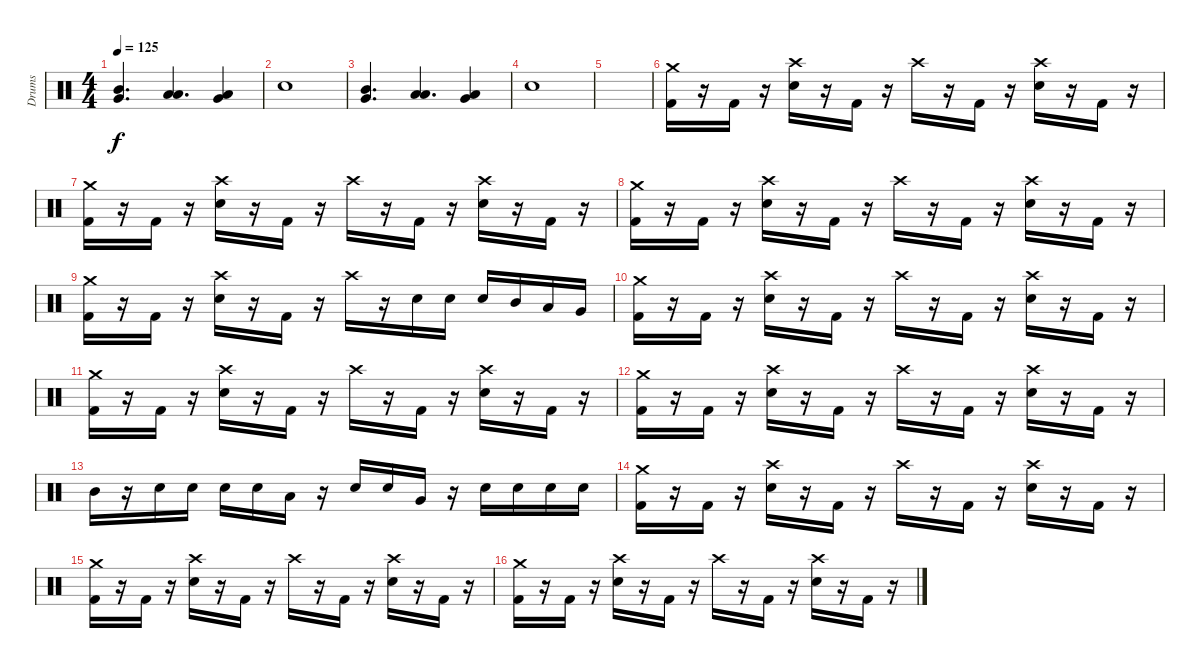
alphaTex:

\track ("Drums" "Drums") {instrument percussion}
\staff {score}
\articulation defaults
\ts (4 4)
\tempo 125
\clef neutral
\ks c
("Mid Tom (hit)" "Very Low Tom (hit)").4{d dy f} ("Low Tom (hit)" "Low Floor Tom (hit)").4{d} ("Very Low Tom (hit)" "Low Floor Tom (hit)").4 |
"Snare (hit) 2".1 |
("Mid Tom (hit)" "Very Low Tom (hit)").4{d} ("Low Tom (hit)" "Low Floor Tom (hit)").4{d} ("Very Low Tom (hit)" "Low Floor Tom (hit)").4 |
"Snare (hit) 2".1 |
|
("Crash medium (hit)" "Kick (hit) 2").16{volume 13} r.16 "Kick (hit) 2".16 r.16 ("Crash high (hit)" "Snare (hit) 2").16 r.16 "Kick (hit) 2".16 r.16 "Crash high (hit)".16 r.16 "Kick (hit) 2".16 r.16 ("Crash high (hit)" "Snare (hit) 2").16 r.16 "Kick (hit) 2".16 r.16 |
("Crash medium (hit)" "Kick (hit) 2").16 r.16 "Kick (hit) 2".16 r.16 ("Crash high (hit)" "Snare (hit) 2").16 r.16 "Kick (hit) 2".16 r.16 "Crash high (hit)".16 r.16 "Kick (hit) 2".16 r.16 ("Crash high (hit)" "Snare (hit) 2").16 r.16 "Kick (hit) 2".16 r.16 |
("Crash medium (hit)" "Kick (hit) 2").16 r.16 "Kick (hit) 2".16 r.16 ("Crash high (hit)" "Snare (hit) 2").16 r.16 "Kick (hit) 2".16 r.16 "Crash high (hit)".16 r.16 "Kick (hit) 2".16 r.16 ("Crash high (hit)" "Snare (hit) 2").16 r.16 "Kick (hit) 2".16 r.16 |
("Crash medium (hit)" "Kick (hit) 2").16 r.16 "Kick (hit) 2".16 r.16 ("Crash high (hit)" "Snare (hit) 2").16 r.16 "Kick (hit) 2".16 r.16 "Crash high (hit)".16 r.16 "Snare (hit) 2".16 "Snare (hit) 2".16 "Snare (hit) 2".16 "Mid Tom (hit)".16 "Low Tom (hit)".16 "Very Low Tom (hit)".16 |
("Crash medium (hit)" "Kick (hit) 2").16 r.16 "Kick (hit) 2".16 r.16 ("Crash high (hit)" "Snare (hit) 2").16 r.16 "Kick (hit) 2".16 r.16 "Crash high (hit)".16 r.16 "Kick (hit) 2".16 r.16 ("Crash high (hit)" "Snare (hit) 2").16 r.16 "Kick (hit) 2".16 r.16 |
("Crash medium (hit)" "Kick (hit) 2").16 r.16 "Kick (hit) 2".16 r.16 ("Crash high (hit)" "Snare (hit) 2").16 r.16 "Kick (hit) 2".16 r.16 "Crash high (hit)".16 r.16 "Kick (hit) 2".16 r.16 ("Crash high (hit)" "Snare (hit) 2").16 r.16 "Kick (hit) 2".16 r.16 |
("Crash medium (hit)" "Kick (hit) 2").16 r.16 "Kick (hit) 2".16 r.16 ("Crash high (hit)" "Snare (hit) 2").16 r.16 "Kick (hit) 2".16 r.16 "Crash high (hit)".16 r.16 "Kick (hit) 2".16 r.16 ("Crash high (hit)" "Snare (hit) 2").16 r.16 "Kick (hit) 2".16 r.16 |
"Mid Tom (hit)".16 r.16 "Snare (hit) 2".16 "Snare (hit) 2".16 "Snare (hit) 2".16 "Snare (hit) 2".16 "Low Tom (hit)".16 r.16 "Snare (hit) 2".16 "Snare (hit) 2".16 "Very Low Tom (hit)".16 r.16 "Snare (hit) 2".16 "Snare (hit) 2".16 "Snare (hit) 2".16 "Snare (hit) 2".16 |
("Crash medium (hit)" "Kick (hit) 2").16 r.16 "Kick (hit) 2".16 r.16 ("Crash high (hit)" "Snare (hit) 2").16 r.16 "Kick (hit) 2".16 r.16 "Crash high (hit)".16 r.16 "Kick (hit) 2".16 r.16 ("Crash high (hit)" "Snare (hit) 2").16 r.16 "Kick (hit) 2".16 r.16 |
("Crash medium (hit)" "Kick (hit) 2").16 r.16 "Kick (hit) 2".16 r.16 ("Crash high (hit)" "Snare (hit) 2").16 r.16 "Kick (hit) 2".16 r.16 "Crash high (hit)".16 r.16 "Kick (hit) 2".16 r.16 ("Crash high (hit)" "Snare (hit) 2").16 r.16 "Kick (hit) 2".16 r.16 |
("Crash medium (hit)" "Kick (hit) 2").16 r.16 "Kick (hit) 2".16 r.16 ("Crash high (hit)" "Snare (hit) 2").16 r.16 "Kick (hit) 2".16 r.16 "Crash high (hit)".16 r.16 "Kick (hit) 2".16 r.16 ("Crash high (hit)" "Snare (hit) 2").16 r.16 "Kick (hit) 2".16 r.16
